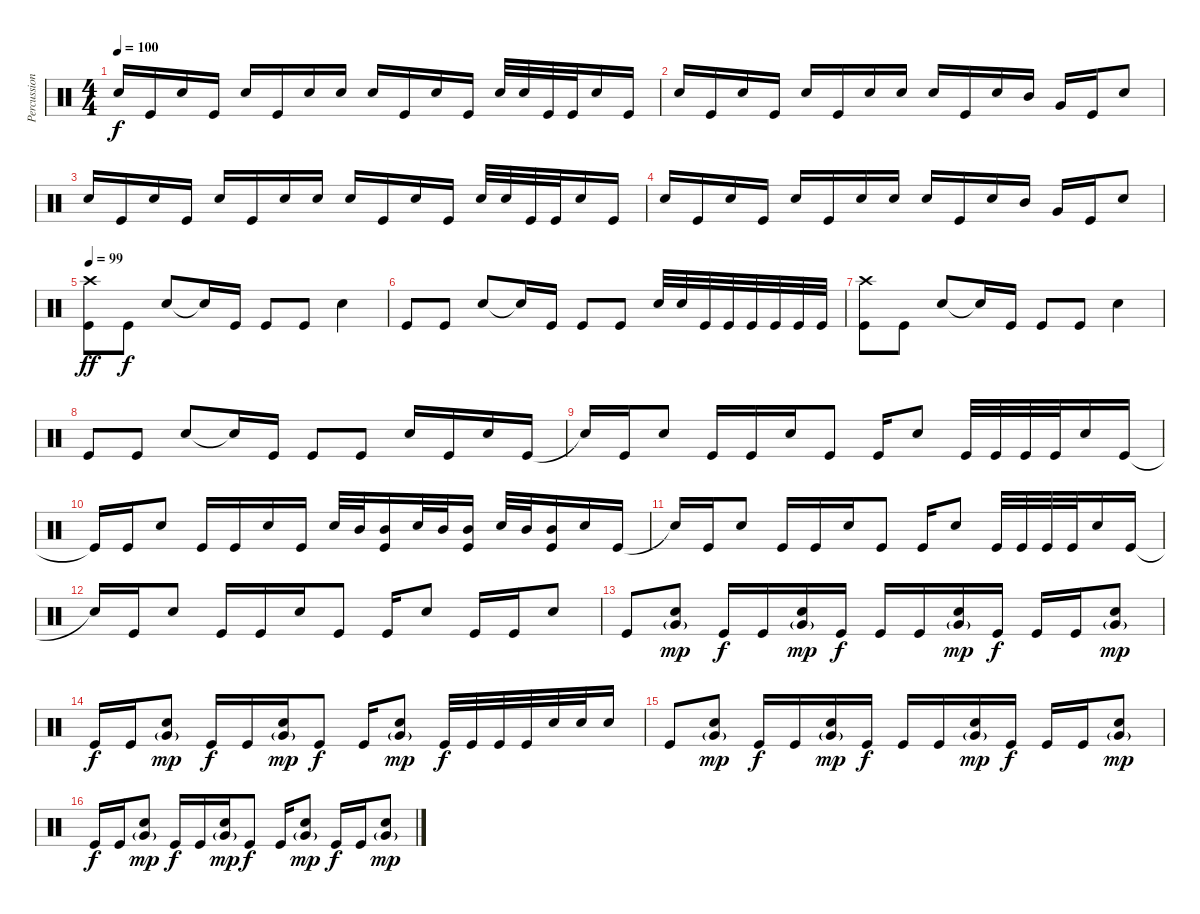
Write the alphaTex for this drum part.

\track ("Percussion" "Percussion") {instrument percussion}
\staff {score}
\articulation defaults
\ts (4 4)
\tempo 100
\clef neutral
\ks c "Electric Snare (hit)".16{dy f} "Kick (hit)".16 "Electric Snare (hit)".16 "Kick (hit)".16 "Electric Snare (hit)".16 "Kick (hit)".16 "Electric Snare (hit)".16 "Electric Snare (hit)".16 "Electric Snare (hit)".16 "Kick (hit)".16 "Electric Snare (hit)".16 "Kick (hit)".16 "Electric Snare (hit)".32 "Electric Snare (hit)".32 "Kick (hit)".32 "Kick (hit)".32 "Electric Snare (hit)".16 "Kick (hit)".16
|
"Electric Snare (hit)".16 "Kick (hit)".16 "Electric Snare (hit)".16 "Kick (hit)".16 "Electric Snare (hit)".16 "Kick (hit)".16 "Electric Snare (hit)".16 "Electric Snare (hit)".16 "Electric Snare (hit)".16 "Kick (hit)".16 "Electric Snare (hit)".16 "Mid Tom (hit)".16 "Very Low Tom (hit)".16 "Kick (hit)".16 "Electric Snare (hit)".8 |
"Electric Snare (hit)".16 "Kick (hit)".16 "Electric Snare (hit)".16 "Kick (hit)".16 "Electric Snare (hit)".16 "Kick (hit)".16 "Electric Snare (hit)".16 "Electric Snare (hit)".16 "Electric Snare (hit)".16 "Kick (hit)".16 "Electric Snare (hit)".16 "Kick (hit)".16 "Electric Snare (hit)".32 "Electric Snare (hit)".32 "Kick (hit)".32 "Kick (hit)".32 "Electric Snare (hit)".16 "Kick (hit)".16 |
"Electric Snare (hit)".16 "Kick (hit)".16 "Electric Snare (hit)".16 "Kick (hit)".16 "Electric Snare (hit)".16 "Kick (hit)".16 "Electric Snare (hit)".16 "Electric Snare (hit)".16 "Electric Snare (hit)".16 "Kick (hit)".16 "Electric Snare (hit)".16 "Mid Tom (hit)".16 "Very Low Tom (hit)".16 "Kick (hit)".16 "Electric Snare (hit)".8 |
\tempo 99
("Crash high (hit)" "Kick (hit)").8{dy ff} "Kick (hit)".8{dy f} "Electric Snare (hit)".8 "Snare (hit)"{t}.16 "Kick (hit)".16 "Kick (hit)".8 "Kick (hit)".8 "Electric Snare (hit)".4 |
"Kick (hit)".8 "Kick (hit)".8 "Electric Snare (hit)".8 "Snare (hit)"{t}.16 "Kick (hit)".16 "Kick (hit)".8 "Kick (hit)".8 "Electric Snare (hit)".32 "Electric Snare (hit)".32 "Kick (hit)".32 "Kick (hit)".32 "Kick (hit)".32 "Kick (hit)".32 "Kick (hit)".32 "Kick (hit)".32 |
("Crash high (hit)" "Kick (hit)").8 "Kick (hit)".8 "Electric Snare (hit)".8 "Snare (hit)"{t}.16 "Kick (hit)".16 "Kick (hit)".8 "Kick (hit)".8 "Electric Snare (hit)".4 |
"Kick (hit)".8 "Kick (hit)".8 "Electric Snare (hit)".8 "Snare (hit)"{t}.16 "Kick (hit)".16 "Kick (hit)".8 "Kick (hit)".8 "Electric Snare (hit)".16 "Kick (hit)".16 "Electric Snare (hit)".16 "Kick (hit)".16 |
"Snare (hit)"{t}.16 "Kick (hit)".16 "Electric Snare (hit)".8 "Kick (hit)".16 "Kick (hit)".16 "Electric Snare (hit)".16 "Kick (hit)".8 "Kick (hit)".16 "Electric Snare (hit)".8 "Kick (hit)".32 "Kick (hit)".32 "Kick (hit)".32 "Kick (hit)".32 "Electric Snare (hit)".16 "Kick (hit)".16 |
"Kick (hit)"{t}.16 "Kick (hit)".16 "Electric Snare (hit)".8 "Kick (hit)".16 "Kick (hit)".16 "Electric Snare (hit)".16 "Kick (hit)".16 "Electric Snare (hit)".32 "Mid Tom (hit)".32 ("Mid Tom (hit)" "Kick (hit)").16 "Electric Snare (hit)".32 "Mid Tom (hit)".32 ("Mid Tom (hit)" "Kick (hit)").16 "Electric Snare (hit)".32 "Mid Tom (hit)".32 ("Mid Tom (hit)" "Kick (hit)").16 "Electric Snare (hit)".16 "Kick (hit)".16 |
"Snare (hit)"{t}.16 "Kick (hit)".16 "Electric Snare (hit)".8 "Kick (hit)".16 "Kick (hit)".16 "Electric Snare (hit)".16 "Kick (hit)".8 "Kick (hit)".16 "Electric Snare (hit)".8 "Kick (hit)".32 "Kick (hit)".32 "Kick (hit)".32 "Kick (hit)".32 "Electric Snare (hit)".16 "Kick (hit)".16 |
"Snare (hit)"{t}.16 "Kick (hit)".16 "Electric Snare (hit)".8 "Kick (hit)".16 "Kick (hit)".16 "Electric Snare (hit)".16 "Kick (hit)".8 "Kick (hit)".16 "Electric Snare (hit)".8 "Kick (hit)".16 "Kick (hit)".16 "Electric Snare (hit)".8 |
"Kick (hit)".8 ("Electric Snare (hit)" "Very Low Tom (hit)"{g}).8{dy mp} "Kick (hit)".16{dy f} "Kick (hit)".16 ("Electric Snare (hit)" "Very Low Tom (hit)"{g}).16{dy mp} "Kick (hit)".16{dy f} "Kick (hit)".16 "Kick (hit)".16 ("Electric Snare (hit)" "Very Low Tom (hit)"{g}).16{dy mp} "Kick (hit)".16{dy f} "Kick (hit)".16 "Kick (hit)".16 ("Electric Snare (hit)" "Very Low Tom (hit)"{g}).8{dy mp} |
"Kick (hit)".16{dy f} "Kick (hit)".16 ("Electric Snare (hit)" "Very Low Tom (hit)"{g}).8{dy mp} "Kick (hit)".16{dy f} "Kick (hit)".16 ("Electric Snare (hit)" "Very Low Tom (hit)"{g}).16{dy mp} "Kick (hit)".8{dy f} "Kick (hit)".16 ("Electric Snare (hit)" "Very Low Tom (hit)"{g}).8{dy mp} "Kick (hit)".32{dy f} "Kick (hit)".32 "Kick (hit)".32 "Kick (hit)".32 "Electric Snare (hit)".32 "Electric Snare (hit)".32 "Electric Snare (hit)".16 |
"Kick (hit)".8 ("Electric Snare (hit)" "Very Low Tom (hit)"{g}).8{dy mp} "Kick (hit)".16{dy f} "Kick (hit)".16 ("Electric Snare (hit)" "Very Low Tom (hit)"{g}).16{dy mp} "Kick (hit)".16{dy f} "Kick (hit)".16 "Kick (hit)".16 ("Electric Snare (hit)" "Very Low Tom (hit)"{g}).16{dy mp} "Kick (hit)".16{dy f} "Kick (hit)".16 "Kick (hit)".16 ("Electric Snare (hit)" "Very Low Tom (hit)"{g}).8{dy mp} |
"Kick (hit)".16{dy f} "Kick (hit)".16 ("Electric Snare (hit)" "Very Low Tom (hit)"{g}).8{dy mp} "Kick (hit)".16{dy f} "Kick (hit)".16 ("Electric Snare (hit)" "Very Low Tom (hit)"{g}).16{dy mp} "Kick (hit)".8{dy f} "Kick (hit)".16 ("Electric Snare (hit)" "Very Low Tom (hit)"{g}).8{dy mp} "Kick (hit)".16{dy f} "Kick (hit)".16 ("Electric Snare (hit)" "Very Low Tom (hit)"{g}).8{dy mp}
